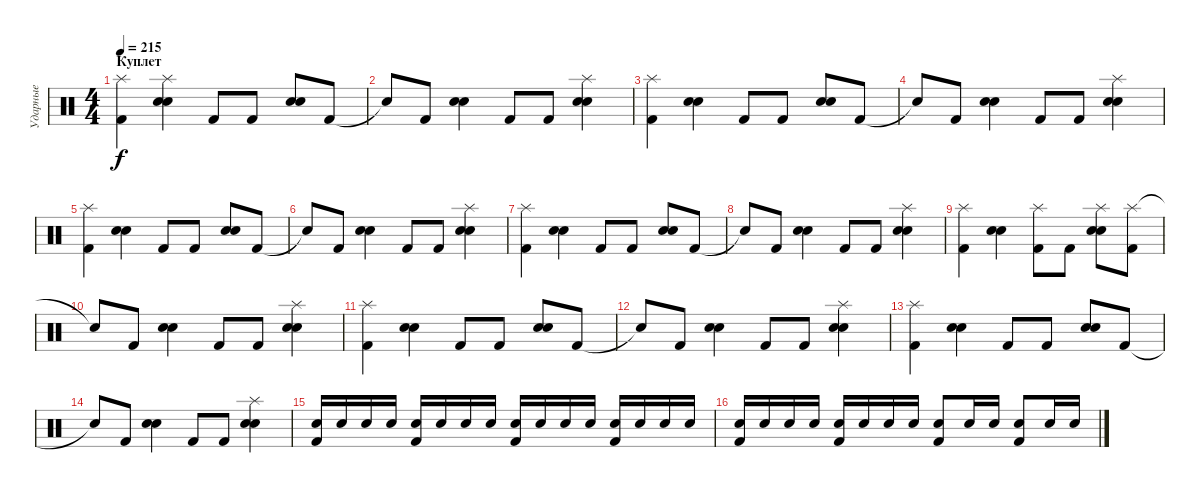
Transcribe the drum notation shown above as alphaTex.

\track ("Ударные" "Ударные") {instrument percussion}
\staff {score}
\articulation defaults
\ts (4 4)
\section ("" "Куплет")
\tempo 215
\clef neutral
\ks c
("Splash (hit)" "Kick (hit) 2").4{dy f} ("Splash (hit)" "Electric Snare (hit)" "Snare (hit) 2").4 "Kick (hit) 2".8 "Kick (hit) 2".8 ("Electric Snare (hit)" "Snare (hit) 2").8 "Kick (hit) 2".8 |
"Snare (hit)"{t}.8 "Kick (hit) 2".8 ("Electric Snare (hit)" "Snare (hit) 2").4 "Kick (hit) 2".8 "Kick (hit) 2".8 ("Splash (hit)" "Electric Snare (hit)" "Snare (hit) 2").4 |
("Splash (hit)" "Kick (hit) 2").4 ("Electric Snare (hit)" "Snare (hit) 2").4 "Kick (hit) 2".8 "Kick (hit) 2".8 ("Electric Snare (hit)" "Snare (hit) 2").8 "Kick (hit) 2".8 |
"Snare (hit)"{t}.8 "Kick (hit) 2".8 ("Electric Snare (hit)" "Snare (hit) 2").4 "Kick (hit) 2".8 "Kick (hit) 2".8 ("Splash (hit)" "Electric Snare (hit)" "Snare (hit) 2").4 |
("Splash (hit)" "Kick (hit) 2").4 ("Electric Snare (hit)" "Snare (hit) 2").4 "Kick (hit) 2".8 "Kick (hit) 2".8 ("Electric Snare (hit)" "Snare (hit) 2").8 "Kick (hit) 2".8 |
"Snare (hit)"{t}.8 "Kick (hit) 2".8 ("Electric Snare (hit)" "Snare (hit) 2").4 "Kick (hit) 2".8 "Kick (hit) 2".8 ("Splash (hit)" "Electric Snare (hit)" "Snare (hit) 2").4 |
("Splash (hit)" "Kick (hit) 2").4 ("Electric Snare (hit)" "Snare (hit) 2").4 "Kick (hit) 2".8 "Kick (hit) 2".8 ("Electric Snare (hit)" "Snare (hit) 2").8 "Kick (hit) 2".8 |
"Snare (hit)"{t}.8 "Kick (hit) 2".8 ("Electric Snare (hit)" "Snare (hit) 2").4 "Kick (hit) 2".8 "Kick (hit) 2".8 ("Splash (hit)" "Electric Snare (hit)" "Snare (hit) 2").4 |
("Splash (hit)" "Kick (hit) 2").4 ("Electric Snare (hit)" "Snare (hit) 2").4 ("Splash (hit)" "Kick (hit) 2").8 "Kick (hit) 2".8 ("Splash (hit)" "Electric Snare (hit)" "Snare (hit) 2").8 ("Splash (hit)" "Kick (hit) 2").8 |
"Snare (hit)"{t}.8 "Kick (hit) 2".8 ("Electric Snare (hit)" "Snare (hit) 2").4 "Kick (hit) 2".8 "Kick (hit) 2".8 ("Splash (hit)" "Electric Snare (hit)" "Snare (hit) 2").4 |
("Splash (hit)" "Kick (hit) 2").4 ("Electric Snare (hit)" "Snare (hit) 2").4 "Kick (hit) 2".8 "Kick (hit) 2".8 ("Electric Snare (hit)" "Snare (hit) 2").8 "Kick (hit) 2".8 |
"Snare (hit)"{t}.8 "Kick (hit) 2".8 ("Electric Snare (hit)" "Snare (hit) 2").4 "Kick (hit) 2".8 "Kick (hit) 2".8 ("Splash (hit)" "Electric Snare (hit)" "Snare (hit) 2").4 |
("Splash (hit)" "Kick (hit) 2").4 ("Electric Snare (hit)" "Snare (hit) 2").4 "Kick (hit) 2".8 "Kick (hit) 2".8 ("Electric Snare (hit)" "Snare (hit) 2").8 "Kick (hit) 2".8 |
"Snare (hit)"{t}.8 "Kick (hit) 2".8 ("Electric Snare (hit)" "Snare (hit) 2").4 "Kick (hit) 2".8 "Kick (hit) 2".8 ("Splash (hit)" "Electric Snare (hit)" "Snare (hit) 2").4 |
("Electric Snare (hit)" "Kick (hit) 2").16 "Electric Snare (hit)".16 "Electric Snare (hit)".16 "Electric Snare (hit)".16 ("Electric Snare (hit)" "Kick (hit) 2").16 "Electric Snare (hit)".16 "Electric Snare (hit)".16 "Electric Snare (hit)".16 ("Electric Snare (hit)" "Kick (hit) 2").16 "Electric Snare (hit)".16 "Electric Snare (hit)".16 "Electric Snare (hit)".16 ("Electric Snare (hit)" "Kick (hit) 2").16 "Electric Snare (hit)".16 "Electric Snare (hit)".16 "Electric Snare (hit)".16 |
("Electric Snare (hit)" "Kick (hit) 2").16 "Electric Snare (hit)".16 "Electric Snare (hit)".16 "Electric Snare (hit)".16 ("Electric Snare (hit)" "Kick (hit) 2").16 "Electric Snare (hit)".16 "Electric Snare (hit)".16 "Electric Snare (hit)".16 ("Electric Snare (hit)" "Kick (hit) 2").8 "Electric Snare (hit)".16 "Electric Snare (hit)".16 ("Electric Snare (hit)" "Kick (hit) 2").8 "Electric Snare (hit)".16 "Electric Snare (hit)".16
